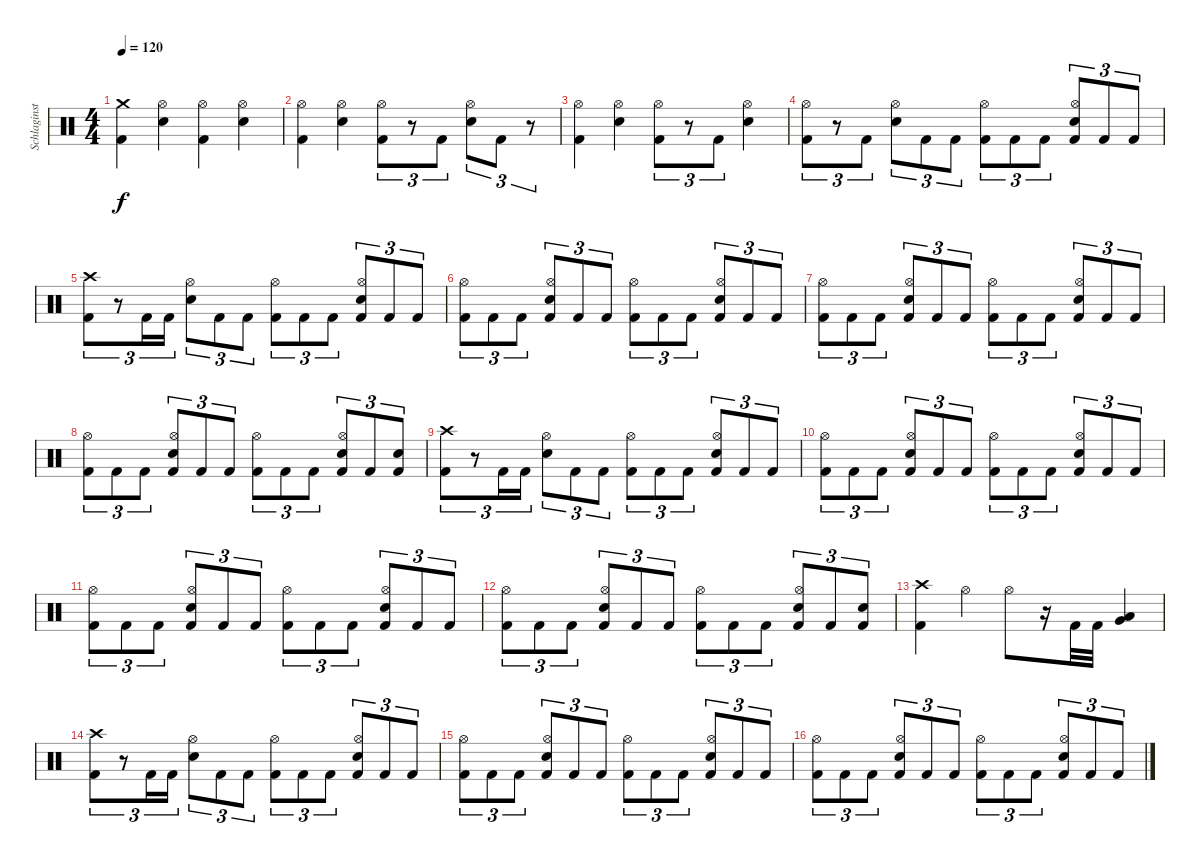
\track ("Schlaginstrumente - Auswahl" "Schlaginst") {instrument percussion}
\staff {score}
\articulation defaults
\ts (4 4)
\tempo 120
\clef neutral
\ks c
("Crash medium (hit)" "Kick (hit) 2").4{dy f} ("Hi-Hat (open)" "Electric Snare (hit)").4 ("Hi-Hat (open)" "Kick (hit) 2").4 ("Hi-Hat (open)" "Electric Snare (hit)").4 |
("Hi-Hat (open)" "Kick (hit) 2").4 ("Hi-Hat (open)" "Electric Snare (hit)").4 ("Hi-Hat (open)" "Kick (hit) 2").8{tu (3 2)} r.8{tu (3 2)} "Kick (hit) 2".8{tu (3 2)} ("Hi-Hat (open)" "Electric Snare (hit)").8{tu (3 2)} "Kick (hit) 2".8{tu (3 2)} r.8{tu (3 2)} |
("Hi-Hat (open)" "Kick (hit) 2").4 ("Hi-Hat (open)" "Electric Snare (hit)").4 ("Hi-Hat (open)" "Kick (hit) 2").8{tu (3 2)} r.8{tu (3 2)} "Kick (hit) 2".8{tu (3 2)} ("Hi-Hat (open)" "Electric Snare (hit)").4 |
("Hi-Hat (open)" "Kick (hit) 2").8{tu (3 2)} r.8{tu (3 2)} "Kick (hit) 2".8{tu (3 2)} ("Hi-Hat (open)" "Electric Snare (hit)").8{tu (3 2)} "Kick (hit) 2".8{tu (3 2)} "Kick (hit) 2".8{tu (3 2)} ("Hi-Hat (open)" "Kick (hit) 2").8{tu (3 2)} "Kick (hit) 2".8{tu (3 2)} "Kick (hit) 2".8{tu (3 2)} ("Hi-Hat (open)" "Electric Snare (hit)" "Kick (hit) 2").8{tu (3 2)} "Kick (hit) 2".8{tu (3 2)} "Kick (hit) 2".8{tu (3 2)} |
("Crash high (hit)" "Kick (hit) 2").8{tu (3 2)} r.8{tu (3 2)} "Kick (hit) 2".16{tu (3 2)} "Kick (hit) 2".16{tu (3 2)} ("Hi-Hat (open)" "Electric Snare (hit)").8{tu (3 2)} "Kick (hit) 2".8{tu (3 2)} "Kick (hit) 2".8{tu (3 2)} ("Hi-Hat (open)" "Kick (hit) 2").8{tu (3 2)} "Kick (hit) 2".8{tu (3 2)} "Kick (hit) 2".8{tu (3 2)} ("Hi-Hat (open)" "Electric Snare (hit)" "Kick (hit) 2").8{tu (3 2)} "Kick (hit) 2".8{tu (3 2)} "Kick (hit) 2".8{tu (3 2)} |
("Hi-Hat (open)" "Kick (hit) 2").8{tu (3 2)} "Kick (hit) 2".8{tu (3 2)} "Kick (hit) 2".8{tu (3 2)} ("Hi-Hat (open)" "Electric Snare (hit)" "Kick (hit) 2").8{tu (3 2)} "Kick (hit) 2".8{tu (3 2)} "Kick (hit) 2".8{tu (3 2)} ("Hi-Hat (open)" "Kick (hit) 2").8{tu (3 2)} "Kick (hit) 2".8{tu (3 2)} "Kick (hit) 2".8{tu (3 2)} ("Hi-Hat (open)" "Electric Snare (hit)" "Kick (hit) 2").8{tu (3 2)} "Kick (hit) 2".8{tu (3 2)} "Kick (hit) 2".8{tu (3 2)} |
("Hi-Hat (open)" "Kick (hit) 2").8{tu (3 2)} "Kick (hit) 2".8{tu (3 2)} "Kick (hit) 2".8{tu (3 2)} ("Hi-Hat (open)" "Electric Snare (hit)" "Kick (hit) 2").8{tu (3 2)} "Kick (hit) 2".8{tu (3 2)} "Kick (hit) 2".8{tu (3 2)} ("Hi-Hat (open)" "Kick (hit) 2").8{tu (3 2)} "Kick (hit) 2".8{tu (3 2)} "Kick (hit) 2".8{tu (3 2)} ("Hi-Hat (open)" "Electric Snare (hit)" "Kick (hit) 2").8{tu (3 2)} "Kick (hit) 2".8{tu (3 2)} "Kick (hit) 2".8{tu (3 2)} |
("Hi-Hat (open)" "Kick (hit) 2").8{tu (3 2)} "Kick (hit) 2".8{tu (3 2)} "Kick (hit) 2".8{tu (3 2)} ("Hi-Hat (open)" "Electric Snare (hit)" "Kick (hit) 2").8{tu (3 2)} "Kick (hit) 2".8{tu (3 2)} "Kick (hit) 2".8{tu (3 2)} ("Hi-Hat (open)" "Kick (hit) 2").8{tu (3 2)} "Kick (hit) 2".8{tu (3 2)} "Kick (hit) 2".8{tu (3 2)} ("Hi-Hat (open)" "Electric Snare (hit)" "Kick (hit) 2").8{tu (3 2)} "Kick (hit) 2".8{tu (3 2)} ("Electric Snare (hit)" "Kick (hit) 2").8{tu (3 2)} |
("Crash high (hit)" "Kick (hit) 2").8{tu (3 2)} r.8{tu (3 2)} "Kick (hit) 2".16{tu (3 2)} "Kick (hit) 2".16{tu (3 2)} ("Hi-Hat (open)" "Electric Snare (hit)").8{tu (3 2)} "Kick (hit) 2".8{tu (3 2)} "Kick (hit) 2".8{tu (3 2)} ("Hi-Hat (open)" "Kick (hit) 2").8{tu (3 2)} "Kick (hit) 2".8{tu (3 2)} "Kick (hit) 2".8{tu (3 2)} ("Hi-Hat (open)" "Electric Snare (hit)" "Kick (hit) 2").8{tu (3 2)} "Kick (hit) 2".8{tu (3 2)} "Kick (hit) 2".8{tu (3 2)} |
("Hi-Hat (open)" "Kick (hit) 2").8{tu (3 2)} "Kick (hit) 2".8{tu (3 2)} "Kick (hit) 2".8{tu (3 2)} ("Hi-Hat (open)" "Electric Snare (hit)" "Kick (hit) 2").8{tu (3 2)} "Kick (hit) 2".8{tu (3 2)} "Kick (hit) 2".8{tu (3 2)} ("Hi-Hat (open)" "Kick (hit) 2").8{tu (3 2)} "Kick (hit) 2".8{tu (3 2)} "Kick (hit) 2".8{tu (3 2)} ("Hi-Hat (open)" "Electric Snare (hit)" "Kick (hit) 2").8{tu (3 2)} "Kick (hit) 2".8{tu (3 2)} "Kick (hit) 2".8{tu (3 2)} |
("Hi-Hat (open)" "Kick (hit) 2").8{tu (3 2)} "Kick (hit) 2".8{tu (3 2)} "Kick (hit) 2".8{tu (3 2)} ("Hi-Hat (open)" "Electric Snare (hit)" "Kick (hit) 2").8{tu (3 2)} "Kick (hit) 2".8{tu (3 2)} "Kick (hit) 2".8{tu (3 2)} ("Hi-Hat (open)" "Kick (hit) 2").8{tu (3 2)} "Kick (hit) 2".8{tu (3 2)} "Kick (hit) 2".8{tu (3 2)} ("Hi-Hat (open)" "Electric Snare (hit)" "Kick (hit) 2").8{tu (3 2)} "Kick (hit) 2".8{tu (3 2)} "Kick (hit) 2".8{tu (3 2)} |
("Hi-Hat (open)" "Kick (hit) 2").8{tu (3 2)} "Kick (hit) 2".8{tu (3 2)} "Kick (hit) 2".8{tu (3 2)} ("Hi-Hat (open)" "Electric Snare (hit)" "Kick (hit) 2").8{tu (3 2)} "Kick (hit) 2".8{tu (3 2)} "Kick (hit) 2".8{tu (3 2)} ("Hi-Hat (open)" "Kick (hit) 2").8{tu (3 2)} "Kick (hit) 2".8{tu (3 2)} "Kick (hit) 2".8{tu (3 2)} ("Hi-Hat (open)" "Electric Snare (hit)" "Kick (hit) 2").8{tu (3 2)} "Kick (hit) 2".8{tu (3 2)} ("Electric Snare (hit)" "Kick (hit) 2").8{tu (3 2)} |
("Crash high (hit)" "Kick (hit) 2").4 "Hi-Hat (open)".4 "Hi-Hat (open)".8 r.16 "Kick (hit) 2".32 "Kick (hit) 2".32 ("Very Low Tom (hit)" "Low Floor Tom (hit)").4 |
("Crash high (hit)" "Kick (hit) 2").8{tu (3 2)} r.8{tu (3 2)} "Kick (hit) 2".16{tu (3 2)} "Kick (hit) 2".16{tu (3 2)} ("Hi-Hat (open)" "Electric Snare (hit)").8{tu (3 2)} "Kick (hit) 2".8{tu (3 2)} "Kick (hit) 2".8{tu (3 2)} ("Hi-Hat (open)" "Kick (hit) 2").8{tu (3 2)} "Kick (hit) 2".8{tu (3 2)} "Kick (hit) 2".8{tu (3 2)} ("Hi-Hat (open)" "Electric Snare (hit)" "Kick (hit) 2").8{tu (3 2)} "Kick (hit) 2".8{tu (3 2)} "Kick (hit) 2".8{tu (3 2)} |
("Hi-Hat (open)" "Kick (hit) 2").8{tu (3 2)} "Kick (hit) 2".8{tu (3 2)} "Kick (hit) 2".8{tu (3 2)} ("Hi-Hat (open)" "Electric Snare (hit)" "Kick (hit) 2").8{tu (3 2)} "Kick (hit) 2".8{tu (3 2)} "Kick (hit) 2".8{tu (3 2)} ("Hi-Hat (open)" "Kick (hit) 2").8{tu (3 2)} "Kick (hit) 2".8{tu (3 2)} "Kick (hit) 2".8{tu (3 2)} ("Hi-Hat (open)" "Electric Snare (hit)" "Kick (hit) 2").8{tu (3 2)} "Kick (hit) 2".8{tu (3 2)} "Kick (hit) 2".8{tu (3 2)} |
("Hi-Hat (open)" "Kick (hit) 2").8{tu (3 2)} "Kick (hit) 2".8{tu (3 2)} "Kick (hit) 2".8{tu (3 2)} ("Hi-Hat (open)" "Electric Snare (hit)" "Kick (hit) 2").8{tu (3 2)} "Kick (hit) 2".8{tu (3 2)} "Kick (hit) 2".8{tu (3 2)} ("Hi-Hat (open)" "Kick (hit) 2").8{tu (3 2)} "Kick (hit) 2".8{tu (3 2)} "Kick (hit) 2".8{tu (3 2)} ("Hi-Hat (open)" "Electric Snare (hit)" "Kick (hit) 2").8{tu (3 2)} "Kick (hit) 2".8{tu (3 2)} "Kick (hit) 2".8{tu (3 2)}
